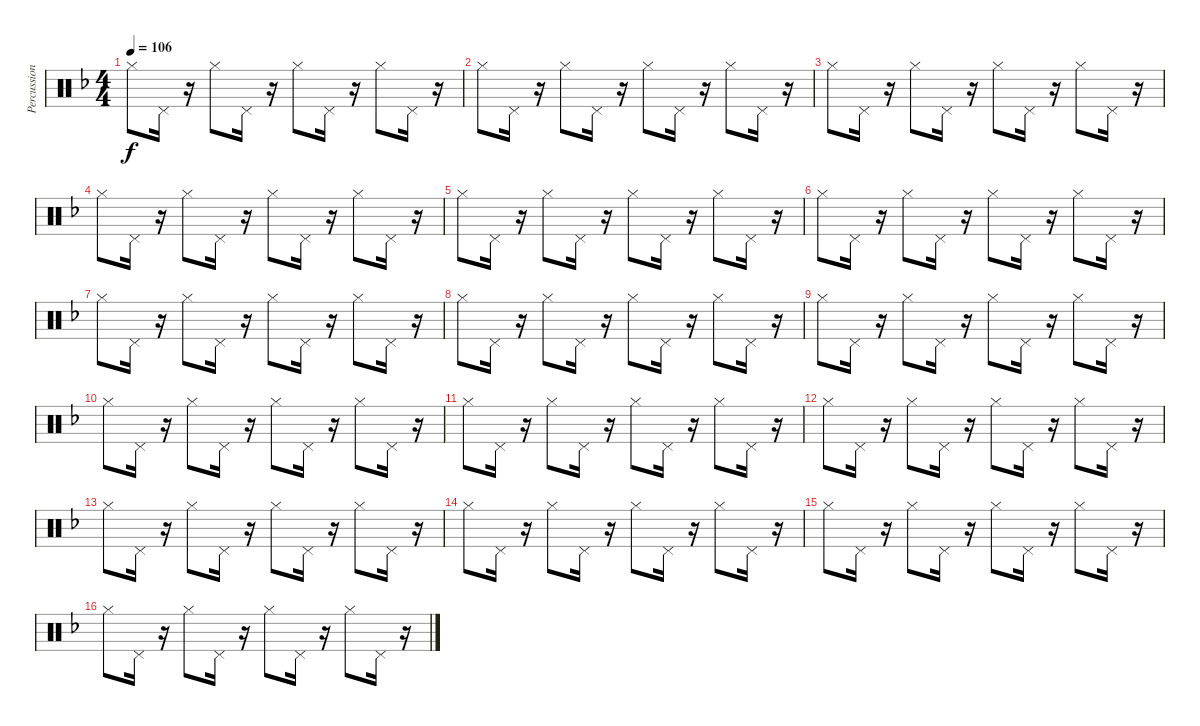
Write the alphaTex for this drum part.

\track ("Percussions" "Percussion") {instrument percussion}
\staff {score}
\articulation defaults
\ts (4 4)
\tempo 106
\clef neutral
\ks f "Hi-Hat (closed)".8{dy f} "Pedal Hi-Hat (hit)".16
r.16 "Hi-Hat (closed)".8 "Pedal Hi-Hat (hit)".16 r.16 "Hi-Hat (closed)".8 "Pedal Hi-Hat (hit)".16 r.16 "Hi-Hat (closed)".8 "Pedal Hi-Hat (hit)".16 r.16 |
"Hi-Hat (closed)".8 "Pedal Hi-Hat (hit)".16 r.16 "Hi-Hat (closed)".8 "Pedal Hi-Hat (hit)".16 r.16 "Hi-Hat (closed)".8 "Pedal Hi-Hat (hit)".16 r.16 "Hi-Hat (closed)".8 "Pedal Hi-Hat (hit)".16 r.16 |
"Hi-Hat (closed)".8 "Pedal Hi-Hat (hit)".16 r.16 "Hi-Hat (closed)".8 "Pedal Hi-Hat (hit)".16 r.16 "Hi-Hat (closed)".8 "Pedal Hi-Hat (hit)".16 r.16 "Hi-Hat (closed)".8 "Pedal Hi-Hat (hit)".16 r.16 |
"Hi-Hat (closed)".8 "Pedal Hi-Hat (hit)".16 r.16 "Hi-Hat (closed)".8 "Pedal Hi-Hat (hit)".16 r.16 "Hi-Hat (closed)".8 "Pedal Hi-Hat (hit)".16 r.16 "Hi-Hat (closed)".8 "Pedal Hi-Hat (hit)".16 r.16 |
"Hi-Hat (closed)".8 "Pedal Hi-Hat (hit)".16 r.16 "Hi-Hat (closed)".8 "Pedal Hi-Hat (hit)".16 r.16 "Hi-Hat (closed)".8 "Pedal Hi-Hat (hit)".16 r.16 "Hi-Hat (closed)".8 "Pedal Hi-Hat (hit)".16 r.16 |
"Hi-Hat (closed)".8 "Pedal Hi-Hat (hit)".16 r.16 "Hi-Hat (closed)".8 "Pedal Hi-Hat (hit)".16 r.16 "Hi-Hat (closed)".8 "Pedal Hi-Hat (hit)".16 r.16 "Hi-Hat (closed)".8 "Pedal Hi-Hat (hit)".16 r.16 |
"Hi-Hat (closed)".8 "Pedal Hi-Hat (hit)".16 r.16 "Hi-Hat (closed)".8 "Pedal Hi-Hat (hit)".16 r.16 "Hi-Hat (closed)".8 "Pedal Hi-Hat (hit)".16 r.16 "Hi-Hat (closed)".8 "Pedal Hi-Hat (hit)".16 r.16 |
"Hi-Hat (closed)".8 "Pedal Hi-Hat (hit)".16 r.16 "Hi-Hat (closed)".8 "Pedal Hi-Hat (hit)".16 r.16 "Hi-Hat (closed)".8 "Pedal Hi-Hat (hit)".16 r.16 "Hi-Hat (closed)".8 "Pedal Hi-Hat (hit)".16 r.16 |
"Hi-Hat (closed)".8 "Pedal Hi-Hat (hit)".16 r.16 "Hi-Hat (closed)".8 "Pedal Hi-Hat (hit)".16 r.16 "Hi-Hat (closed)".8 "Pedal Hi-Hat (hit)".16 r.16 "Hi-Hat (closed)".8 "Pedal Hi-Hat (hit)".16 r.16 |
"Hi-Hat (closed)".8 "Pedal Hi-Hat (hit)".16 r.16 "Hi-Hat (closed)".8 "Pedal Hi-Hat (hit)".16 r.16 "Hi-Hat (closed)".8 "Pedal Hi-Hat (hit)".16 r.16 "Hi-Hat (closed)".8 "Pedal Hi-Hat (hit)".16 r.16 |
"Hi-Hat (closed)".8 "Pedal Hi-Hat (hit)".16 r.16 "Hi-Hat (closed)".8 "Pedal Hi-Hat (hit)".16 r.16 "Hi-Hat (closed)".8 "Pedal Hi-Hat (hit)".16 r.16 "Hi-Hat (closed)".8 "Pedal Hi-Hat (hit)".16 r.16 |
"Hi-Hat (closed)".8 "Pedal Hi-Hat (hit)".16 r.16 "Hi-Hat (closed)".8 "Pedal Hi-Hat (hit)".16 r.16 "Hi-Hat (closed)".8 "Pedal Hi-Hat (hit)".16 r.16 "Hi-Hat (closed)".8 "Pedal Hi-Hat (hit)".16 r.16 |
"Hi-Hat (closed)".8 "Pedal Hi-Hat (hit)".16 r.16 "Hi-Hat (closed)".8 "Pedal Hi-Hat (hit)".16 r.16 "Hi-Hat (closed)".8 "Pedal Hi-Hat (hit)".16 r.16 "Hi-Hat (closed)".8 "Pedal Hi-Hat (hit)".16 r.16 |
"Hi-Hat (closed)".8 "Pedal Hi-Hat (hit)".16 r.16 "Hi-Hat (closed)".8 "Pedal Hi-Hat (hit)".16 r.16 "Hi-Hat (closed)".8 "Pedal Hi-Hat (hit)".16 r.16 "Hi-Hat (closed)".8 "Pedal Hi-Hat (hit)".16 r.16 |
"Hi-Hat (closed)".8 "Pedal Hi-Hat (hit)".16 r.16 "Hi-Hat (closed)".8 "Pedal Hi-Hat (hit)".16 r.16 "Hi-Hat (closed)".8 "Pedal Hi-Hat (hit)".16 r.16 "Hi-Hat (closed)".8 "Pedal Hi-Hat (hit)".16 r.16 |
"Hi-Hat (closed)".8 "Pedal Hi-Hat (hit)".16 r.16 "Hi-Hat (closed)".8 "Pedal Hi-Hat (hit)".16 r.16 "Hi-Hat (closed)".8 "Pedal Hi-Hat (hit)".16 r.16 "Hi-Hat (closed)".8 "Pedal Hi-Hat (hit)".16 r.16
